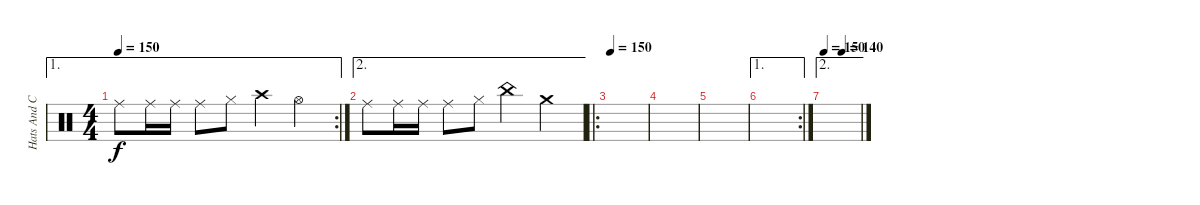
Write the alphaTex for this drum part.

\track ("Hats And Cymbals" "Hats And C") {instrument percussion}
\staff {score}
\articulation defaults
\ae 1
\rc 2
\ts (4 4)
\tempo 150
\clef neutral
\ks c "Ride (middle)".8{dy f} "Ride (middle)".16 "Ride (middle)".16 "Ride (middle)".8 "Hi-Hat (closed)".8 "Crash high (hit)".4 "Hi-Hat (open)".4
|
\ae 2 "Ride (middle)".8 "Ride (middle)".16 "Ride (middle)".16 "Ride (middle)".8 "Hi-Hat (closed)".8 "China (hit)".4 "Crash medium (hit)".4
|
\ro
\tempo 150
|
|
|
\ae 1
\rc 2
|
\ae 2
\tempo (140 0.5)
\tempo 150
